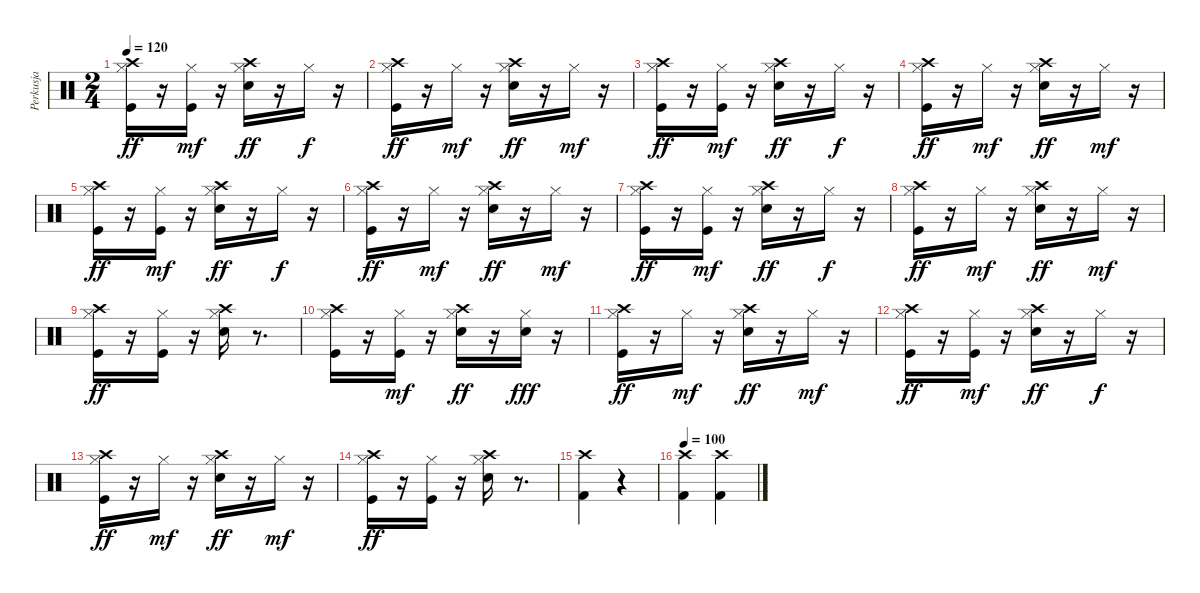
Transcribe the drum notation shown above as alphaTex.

\track ("Perkusja" "Perkusja") {instrument percussion}
\staff {score}
\articulation defaults
\ts (2 4)
\tempo 120
\clef neutral
\ks c
("Kick (hit)" "Hi-Hat (closed)" "Crash high (hit)").16{dy ff} r.16 ("Kick (hit)" "Hi-Hat (closed)").16{dy mf} r.16 ("Snare (hit) 2" "Hi-Hat (closed)" "Crash high (hit)").16{dy ff} r.16 "Hi-Hat (closed)".16{dy f} r.16 |
("Kick (hit)" "Hi-Hat (closed)" "Crash high (hit)").16{dy ff} r.16 "Hi-Hat (closed)".16{dy mf} r.16 ("Snare (hit) 2" "Hi-Hat (closed)" "Crash high (hit)").16{dy ff} r.16 "Hi-Hat (closed)".16{dy mf} r.16 |
("Kick (hit)" "Hi-Hat (closed)" "Crash high (hit)").16{dy ff} r.16 ("Kick (hit)" "Hi-Hat (closed)").16{dy mf} r.16 ("Snare (hit) 2" "Hi-Hat (closed)" "Crash high (hit)").16{dy ff} r.16 "Hi-Hat (closed)".16{dy f} r.16 |
("Kick (hit)" "Hi-Hat (closed)" "Crash high (hit)").16{dy ff} r.16 "Hi-Hat (closed)".16{dy mf} r.16 ("Snare (hit) 2" "Hi-Hat (closed)" "Crash high (hit)").16{dy ff} r.16 "Hi-Hat (closed)".16{dy mf} r.16 |
("Kick (hit)" "Hi-Hat (closed)" "Crash high (hit)").16{dy ff} r.16 ("Kick (hit)" "Hi-Hat (closed)").16{dy mf} r.16 ("Snare (hit) 2" "Hi-Hat (closed)" "Crash high (hit)").16{dy ff} r.16 "Hi-Hat (closed)".16{dy f} r.16 |
("Kick (hit)" "Hi-Hat (closed)" "Crash high (hit)").16{dy ff} r.16 "Hi-Hat (closed)".16{dy mf} r.16 ("Snare (hit) 2" "Hi-Hat (closed)" "Crash high (hit)").16{dy ff} r.16 "Hi-Hat (closed)".16{dy mf} r.16 |
("Kick (hit)" "Hi-Hat (closed)" "Crash high (hit)").16{dy ff} r.16 ("Kick (hit)" "Hi-Hat (closed)").16{dy mf} r.16 ("Snare (hit) 2" "Hi-Hat (closed)" "Crash high (hit)").16{dy ff} r.16 "Hi-Hat (closed)".16{dy f} r.16 |
("Kick (hit)" "Hi-Hat (closed)" "Crash high (hit)").16{dy ff} r.16 "Hi-Hat (closed)".16{dy mf} r.16 ("Snare (hit) 2" "Hi-Hat (closed)" "Crash high (hit)").16{dy ff} r.16 "Hi-Hat (closed)".16{dy mf} r.16 |
("Kick (hit)" "Hi-Hat (closed)" "Crash high (hit)").16{dy ff} r.16 ("Kick (hit)" "Hi-Hat (closed)").16 r.16 ("Snare (hit) 2" "Hi-Hat (closed)" "Crash high (hit)").16 r.8{d} |
("Kick (hit)" "Hi-Hat (closed)" "Crash high (hit)").16 r.16 ("Kick (hit)" "Hi-Hat (closed)").16{dy mf} r.16 ("Snare (hit) 2" "Hi-Hat (closed)" "Crash high (hit)").16{dy ff} r.16 ("Hi-Hat (closed)" "Snare (hit) 2").16{dy fff} r.16 |
("Kick (hit)" "Hi-Hat (closed)" "Crash high (hit)").16{dy ff} r.16 "Hi-Hat (closed)".16{dy mf} r.16 ("Snare (hit) 2" "Hi-Hat (closed)" "Crash high (hit)").16{dy ff} r.16 "Hi-Hat (closed)".16{dy mf} r.16 |
("Kick (hit)" "Hi-Hat (closed)" "Crash high (hit)").16{dy ff} r.16 ("Kick (hit)" "Hi-Hat (closed)").16{dy mf} r.16 ("Snare (hit) 2" "Hi-Hat (closed)" "Crash high (hit)").16{dy ff} r.16 "Hi-Hat (closed)".16{dy f} r.16 |
("Kick (hit)" "Hi-Hat (closed)" "Crash high (hit)").16{dy ff} r.16 "Hi-Hat (closed)".16{dy mf} r.16 ("Snare (hit) 2" "Hi-Hat (closed)" "Crash high (hit)").16{dy ff} r.16 "Hi-Hat (closed)".16{dy mf} r.16 |
("Kick (hit)" "Hi-Hat (closed)" "Crash high (hit)").16{dy ff} r.16 ("Kick (hit)" "Hi-Hat (closed)").16 r.16 ("Snare (hit) 2" "Hi-Hat (closed)" "Crash high (hit)").16 r.8{d} |
("Kick (hit) 2" "Crash high (hit)").4 r.4 |
\tempo 100
("Kick (hit) 2" "Crash high (hit)").4 ("Kick (hit) 2" "Crash high (hit)").4
